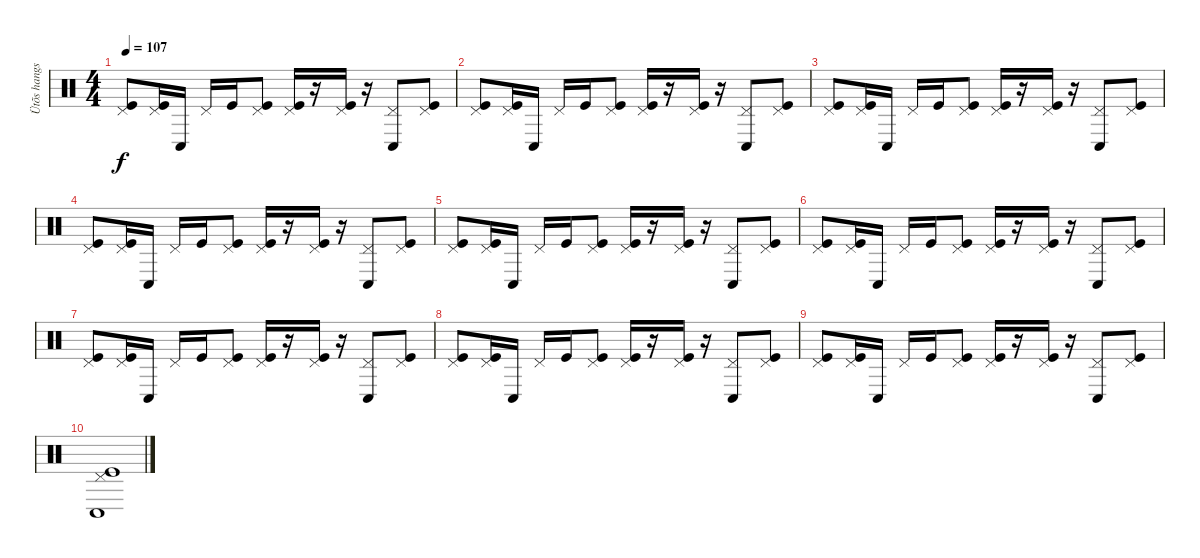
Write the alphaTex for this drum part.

\track ("Ütõs hangszer" "Ütõs hangs") {instrument percussion}
\staff {score}
\articulation defaults
\ts (4 4)
\tempo 107
\clef neutral
\ks c
("Pedal Hi-Hat (hit)" "Kick (hit)").8{dy f} ("Pedal Hi-Hat (hit)" "Kick (hit)").16 "Conga low (hit)".16 "Pedal Hi-Hat (hit)".16 "Kick (hit)".16 ("Pedal Hi-Hat (hit)" "Kick (hit)").8 ("Pedal Hi-Hat (hit)" "Kick (hit)").16 r.16 ("Pedal Hi-Hat (hit)" "Kick (hit)").16 r.16 ("Pedal Hi-Hat (hit)" "Conga low (hit)").8 ("Pedal Hi-Hat (hit)" "Kick (hit)").8 |
("Pedal Hi-Hat (hit)" "Kick (hit)").8 ("Pedal Hi-Hat (hit)" "Kick (hit)").16 "Conga low (hit)".16 "Pedal Hi-Hat (hit)".16 "Kick (hit)".16 ("Pedal Hi-Hat (hit)" "Kick (hit)").8 ("Pedal Hi-Hat (hit)" "Kick (hit)").16 r.16 ("Pedal Hi-Hat (hit)" "Kick (hit)").16 r.16 ("Pedal Hi-Hat (hit)" "Conga low (hit)").8 ("Pedal Hi-Hat (hit)" "Kick (hit)").8 |
("Pedal Hi-Hat (hit)" "Kick (hit)").8 ("Pedal Hi-Hat (hit)" "Kick (hit)").16 "Conga low (hit)".16 "Pedal Hi-Hat (hit)".16 "Kick (hit)".16 ("Pedal Hi-Hat (hit)" "Kick (hit)").8 ("Pedal Hi-Hat (hit)" "Kick (hit)").16 r.16 ("Pedal Hi-Hat (hit)" "Kick (hit)").16 r.16 ("Pedal Hi-Hat (hit)" "Conga low (hit)").8 ("Pedal Hi-Hat (hit)" "Kick (hit)").8 |
("Pedal Hi-Hat (hit)" "Kick (hit)").8 ("Pedal Hi-Hat (hit)" "Kick (hit)").16 "Conga low (hit)".16 "Pedal Hi-Hat (hit)".16 "Kick (hit)".16 ("Pedal Hi-Hat (hit)" "Kick (hit)").8 ("Pedal Hi-Hat (hit)" "Kick (hit)").16 r.16 ("Pedal Hi-Hat (hit)" "Kick (hit)").16 r.16 ("Pedal Hi-Hat (hit)" "Conga low (hit)").8 ("Pedal Hi-Hat (hit)" "Kick (hit)").8 |
("Pedal Hi-Hat (hit)" "Kick (hit)").8 ("Pedal Hi-Hat (hit)" "Kick (hit)").16 "Conga low (hit)".16 "Pedal Hi-Hat (hit)".16 "Kick (hit)".16 ("Pedal Hi-Hat (hit)" "Kick (hit)").8 ("Pedal Hi-Hat (hit)" "Kick (hit)").16 r.16 ("Pedal Hi-Hat (hit)" "Kick (hit)").16 r.16 ("Pedal Hi-Hat (hit)" "Conga low (hit)").8 ("Pedal Hi-Hat (hit)" "Kick (hit)").8 |
("Pedal Hi-Hat (hit)" "Kick (hit)").8 ("Pedal Hi-Hat (hit)" "Kick (hit)").16 "Conga low (hit)".16 "Pedal Hi-Hat (hit)".16 "Kick (hit)".16 ("Pedal Hi-Hat (hit)" "Kick (hit)").8 ("Pedal Hi-Hat (hit)" "Kick (hit)").16 r.16 ("Pedal Hi-Hat (hit)" "Kick (hit)").16 r.16 ("Pedal Hi-Hat (hit)" "Conga low (hit)").8 ("Pedal Hi-Hat (hit)" "Kick (hit)").8 |
("Pedal Hi-Hat (hit)" "Kick (hit)").8 ("Pedal Hi-Hat (hit)" "Kick (hit)").16 "Conga low (hit)".16 "Pedal Hi-Hat (hit)".16 "Kick (hit)".16 ("Pedal Hi-Hat (hit)" "Kick (hit)").8 ("Pedal Hi-Hat (hit)" "Kick (hit)").16 r.16 ("Pedal Hi-Hat (hit)" "Kick (hit)").16 r.16 ("Pedal Hi-Hat (hit)" "Conga low (hit)").8 ("Pedal Hi-Hat (hit)" "Kick (hit)").8 |
("Pedal Hi-Hat (hit)" "Kick (hit)").8 ("Pedal Hi-Hat (hit)" "Kick (hit)").16 "Conga low (hit)".16 "Pedal Hi-Hat (hit)".16 "Kick (hit)".16 ("Pedal Hi-Hat (hit)" "Kick (hit)").8 ("Pedal Hi-Hat (hit)" "Kick (hit)").16 r.16 ("Pedal Hi-Hat (hit)" "Kick (hit)").16 r.16 ("Pedal Hi-Hat (hit)" "Conga low (hit)").8 ("Pedal Hi-Hat (hit)" "Kick (hit)").8 |
("Pedal Hi-Hat (hit)" "Kick (hit)").8 ("Pedal Hi-Hat (hit)" "Kick (hit)").16 "Conga low (hit)".16 "Pedal Hi-Hat (hit)".16 "Kick (hit)".16 ("Pedal Hi-Hat (hit)" "Kick (hit)").8 ("Pedal Hi-Hat (hit)" "Kick (hit)").16 r.16 ("Pedal Hi-Hat (hit)" "Kick (hit)").16 r.16 ("Pedal Hi-Hat (hit)" "Conga low (hit)").8 ("Pedal Hi-Hat (hit)" "Kick (hit)").8 |
("Pedal Hi-Hat (hit)" "Conga low (hit)" "Kick (hit)").1
